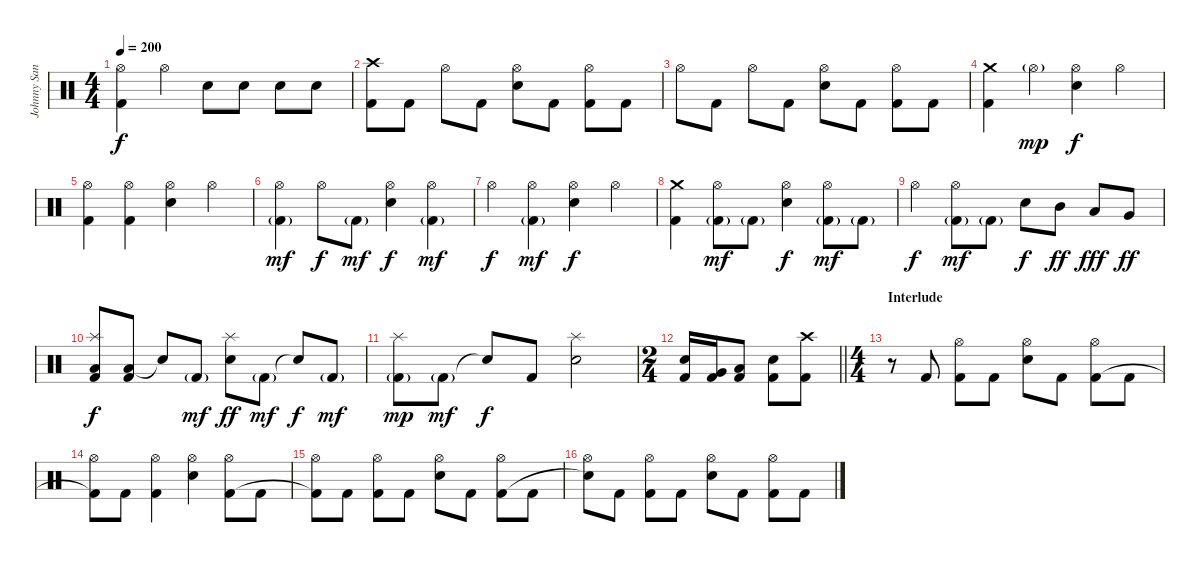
\track ("Johnny Sandin" "Johnny San") {instrument percussion}
\staff {score}
\articulation defaults
\ts (4 4)
\tempo 200
\clef neutral
\ks c
("Hi-Hat (open)" "Kick (hit) 2").4{dy f} "Hi-Hat (open)".4 "Snare (hit) 2".8 "Snare (hit) 2".8 "Snare (hit) 2".8 "Snare (hit) 2".8 |
("Crash high (hit)" "Kick (hit) 2").8 "Kick (hit) 2".8 "Hi-Hat (open)".8 "Kick (hit) 2".8 ("Hi-Hat (open)" "Snare (hit) 2").8 "Kick (hit) 2".8 ("Hi-Hat (open)" "Kick (hit) 2").8 "Kick (hit) 2".8 |
"Hi-Hat (open)".8 "Kick (hit) 2".8 "Hi-Hat (open)".8 "Kick (hit) 2".8 ("Hi-Hat (open)" "Snare (hit) 2").8 "Kick (hit) 2".8 ("Hi-Hat (open)" "Kick (hit) 2").8 "Kick (hit) 2".8 |
("Crash medium (hit)" "Kick (hit) 2").4 "Hi-Hat (open)"{g}.4{dy mp} ("Hi-Hat (open)" "Snare (hit) 2").4{dy f} "Hi-Hat (open)".4 |
("Hi-Hat (open)" "Kick (hit) 2").4 ("Hi-Hat (open)" "Kick (hit) 2").4 ("Hi-Hat (open)" "Snare (hit) 2").4 "Hi-Hat (open)".4 |
("Hi-Hat (open)" "Kick (hit) 2"{g}).4{dy mf} "Hi-Hat (open)".8{dy f} "Kick (hit) 2"{g}.8{dy mf} ("Hi-Hat (open)" "Snare (hit) 2").4{dy f} ("Hi-Hat (open)" "Kick (hit) 2"{g}).4{dy mf} |
"Hi-Hat (open)".4{dy f} ("Hi-Hat (open)" "Kick (hit) 2"{g}).4{dy mf} ("Hi-Hat (open)" "Snare (hit) 2").4{dy f} "Hi-Hat (open)".4 |
("Crash medium (hit)" "Kick (hit) 2").4 ("Hi-Hat (open)" "Kick (hit) 2"{g}).8{dy mf} "Kick (hit) 2"{g}.8 ("Hi-Hat (open)" "Snare (hit) 2").4{dy f} ("Hi-Hat (open)" "Kick (hit) 2"{g}).8{dy mf} "Kick (hit) 2"{g}.8 |
"Hi-Hat (open)".4{dy f} ("Hi-Hat (open)" "Kick (hit) 2"{g}).8{dy mf} "Kick (hit) 2"{g}.8 "Snare (hit) 2".8{dy f} "Mid Tom (hit)".8{dy ff} "Low Tom (hit)".8{dy fff} "Very Low Tom (hit)".8{dy ff} |
("Splash (hit)" "Low Floor Tom (hit)" "Kick (hit) 2").8{dy f} ("Low Floor Tom (hit)" "Kick (hit) 2").8 "Snare (hit)"{t}.8 "Kick (hit) 2"{g}.8{dy mf} ("Splash (hit)" "Snare (hit) 2").8{dy ff} "Kick (hit) 2"{g}.8{dy mf} "Snare (hit)"{t}.8{dy f} "Kick (hit) 2"{g}.8{dy mf} |
("Splash (hit)" "Kick (hit) 2"{g}).8{dy mp} "Kick (hit) 2"{g}.8{dy mf} "Snare (hit)"{t}.8{dy f} "Kick (hit) 2".8 ("Splash (hit)" "Snare (hit) 2").2 |
\ts (2 4)
\barLineRight lightlight
("Snare (hit) 2" "Kick (hit) 2").16 ("Very Low Tom (hit)" "Kick (hit) 2").16 ("Low Floor Tom (hit)" "Kick (hit) 2").8 ("Snare (hit) 2" "Kick (hit) 2").8 ("Crash high (hit)" "Kick (hit) 2").8 |
\ts (4 4)
\section ("" "Interlude")
r.8 "Kick (hit) 2".8 ("Hi-Hat (open)" "Kick (hit) 2").8 "Kick (hit) 2".8 ("Hi-Hat (open)" "Snare (hit) 2").8 "Kick (hit) 2".8 ("Hi-Hat (open)" "Kick (hit) 2").8 "Kick (hit) 2".8 |
("Hi-Hat (open)" "Kick (hit) 2"{t}).8 "Kick (hit) 2".8 ("Hi-Hat (open)" "Kick (hit) 2").4 ("Hi-Hat (open)" "Snare (hit) 2").4 ("Hi-Hat (open)" "Kick (hit) 2").8 "Kick (hit) 2".8 |
("Hi-Hat (open)" "Kick (hit) 2"{t}).8 "Kick (hit) 2".8 ("Hi-Hat (open)" "Kick (hit) 2").8 "Kick (hit) 2".8 ("Hi-Hat (open)" "Snare (hit) 2").8 "Kick (hit) 2".8 ("Hi-Hat (open)" "Kick (hit) 2").8 "Kick (hit) 2".8 |
("Hi-Hat (open)" "Snare (hit)"{t}).8 "Kick (hit) 2".8 ("Hi-Hat (open)" "Kick (hit) 2").8 "Kick (hit) 2".8 ("Hi-Hat (open)" "Snare (hit) 2").8 "Kick (hit) 2".8 ("Hi-Hat (open)" "Kick (hit) 2").8 "Kick (hit) 2".8
